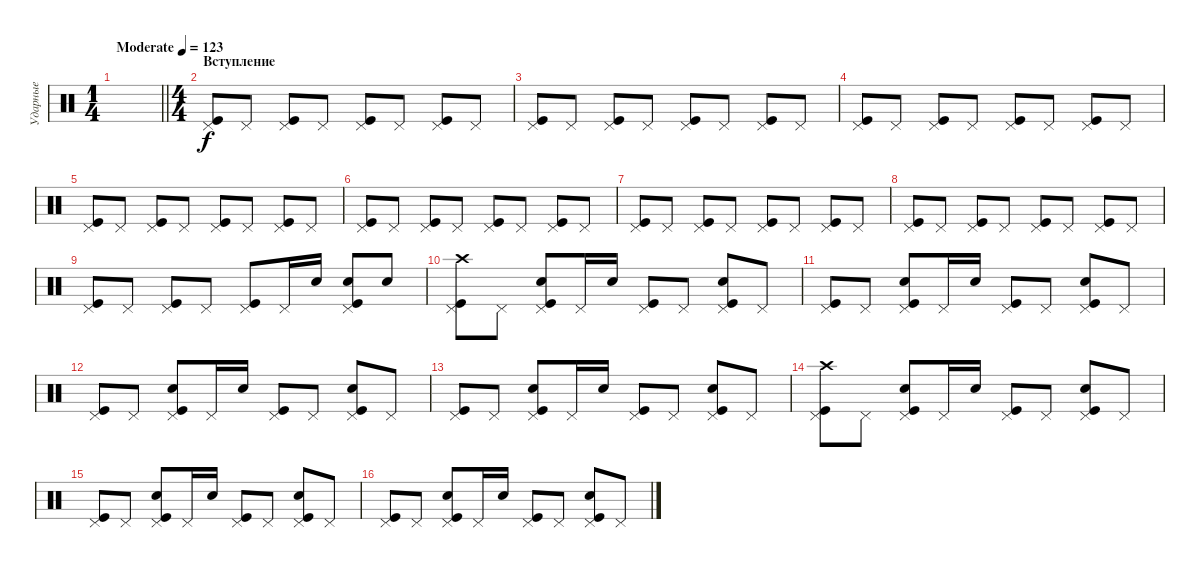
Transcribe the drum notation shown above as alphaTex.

\track ("Ударные" "Ударные") {instrument percussion}
\staff {score}
\articulation defaults
\ts (1 4)
\tempo (123 "Moderate")
\clef neutral
\barLineRight lightlight
\ks c
|
\ts (4 4)
\section ("" "Вступление")
("Kick (hit)" "Pedal Hi-Hat (hit)").8 "Pedal Hi-Hat (hit)".8 ("Kick (hit)" "Pedal Hi-Hat (hit)").8 "Pedal Hi-Hat (hit)".8 ("Kick (hit)" "Pedal Hi-Hat (hit)").8 "Pedal Hi-Hat (hit)".8 ("Kick (hit)" "Pedal Hi-Hat (hit)").8 "Pedal Hi-Hat (hit)".8 |
("Kick (hit)" "Pedal Hi-Hat (hit)").8 "Pedal Hi-Hat (hit)".8 ("Kick (hit)" "Pedal Hi-Hat (hit)").8 "Pedal Hi-Hat (hit)".8 ("Kick (hit)" "Pedal Hi-Hat (hit)").8 "Pedal Hi-Hat (hit)".8 ("Kick (hit)" "Pedal Hi-Hat (hit)").8 "Pedal Hi-Hat (hit)".8 |
("Kick (hit)" "Pedal Hi-Hat (hit)").8 "Pedal Hi-Hat (hit)".8 ("Kick (hit)" "Pedal Hi-Hat (hit)").8 "Pedal Hi-Hat (hit)".8 ("Kick (hit)" "Pedal Hi-Hat (hit)").8 "Pedal Hi-Hat (hit)".8 ("Kick (hit)" "Pedal Hi-Hat (hit)").8 "Pedal Hi-Hat (hit)".8 |
("Kick (hit)" "Pedal Hi-Hat (hit)").8 "Pedal Hi-Hat (hit)".8 ("Kick (hit)" "Pedal Hi-Hat (hit)").8 "Pedal Hi-Hat (hit)".8 ("Kick (hit)" "Pedal Hi-Hat (hit)").8 "Pedal Hi-Hat (hit)".8 ("Kick (hit)" "Pedal Hi-Hat (hit)").8 "Pedal Hi-Hat (hit)".8 |
("Kick (hit)" "Pedal Hi-Hat (hit)").8 "Pedal Hi-Hat (hit)".8 ("Kick (hit)" "Pedal Hi-Hat (hit)").8 "Pedal Hi-Hat (hit)".8 ("Kick (hit)" "Pedal Hi-Hat (hit)").8 "Pedal Hi-Hat (hit)".8 ("Kick (hit)" "Pedal Hi-Hat (hit)").8 "Pedal Hi-Hat (hit)".8 |
("Kick (hit)" "Pedal Hi-Hat (hit)").8 "Pedal Hi-Hat (hit)".8 ("Kick (hit)" "Pedal Hi-Hat (hit)").8 "Pedal Hi-Hat (hit)".8 ("Kick (hit)" "Pedal Hi-Hat (hit)").8 "Pedal Hi-Hat (hit)".8 ("Kick (hit)" "Pedal Hi-Hat (hit)").8 "Pedal Hi-Hat (hit)".8 |
("Kick (hit)" "Pedal Hi-Hat (hit)").8 "Pedal Hi-Hat (hit)".8 ("Kick (hit)" "Pedal Hi-Hat (hit)").8 "Pedal Hi-Hat (hit)".8 ("Kick (hit)" "Pedal Hi-Hat (hit)").8 "Pedal Hi-Hat (hit)".8 ("Kick (hit)" "Pedal Hi-Hat (hit)").8 "Pedal Hi-Hat (hit)".8 |
("Kick (hit)" "Pedal Hi-Hat (hit)").8 "Pedal Hi-Hat (hit)".8 ("Kick (hit)" "Pedal Hi-Hat (hit)").8 "Pedal Hi-Hat (hit)".8 ("Kick (hit)" "Pedal Hi-Hat (hit)").8 "Pedal Hi-Hat (hit)".16 "Snare (hit) 2".16 ("Kick (hit)" "Pedal Hi-Hat (hit)" "Snare (hit) 2").8 "Snare (hit) 2".8 |
("Kick (hit)" "Pedal Hi-Hat (hit)" "Crash high (hit)").8 "Pedal Hi-Hat (hit)".8 ("Kick (hit)" "Pedal Hi-Hat (hit)" "Snare (hit) 2").8 "Pedal Hi-Hat (hit)".16 "Snare (hit) 2".16 ("Kick (hit)" "Pedal Hi-Hat (hit)").8 "Pedal Hi-Hat (hit)".8 ("Kick (hit)" "Pedal Hi-Hat (hit)" "Snare (hit) 2").8 "Pedal Hi-Hat (hit)".8 |
("Kick (hit)" "Pedal Hi-Hat (hit)").8 "Pedal Hi-Hat (hit)".8 ("Kick (hit)" "Pedal Hi-Hat (hit)" "Snare (hit) 2").8 "Pedal Hi-Hat (hit)".16 "Snare (hit) 2".16 ("Kick (hit)" "Pedal Hi-Hat (hit)").8 "Pedal Hi-Hat (hit)".8 ("Kick (hit)" "Pedal Hi-Hat (hit)" "Snare (hit) 2").8 "Pedal Hi-Hat (hit)".8 |
("Kick (hit)" "Pedal Hi-Hat (hit)").8 "Pedal Hi-Hat (hit)".8 ("Kick (hit)" "Pedal Hi-Hat (hit)" "Snare (hit) 2").8 "Pedal Hi-Hat (hit)".16 "Snare (hit) 2".16 ("Kick (hit)" "Pedal Hi-Hat (hit)").8 "Pedal Hi-Hat (hit)".8 ("Kick (hit)" "Pedal Hi-Hat (hit)" "Snare (hit) 2").8 "Pedal Hi-Hat (hit)".8 |
("Kick (hit)" "Pedal Hi-Hat (hit)").8 "Pedal Hi-Hat (hit)".8 ("Kick (hit)" "Pedal Hi-Hat (hit)" "Snare (hit) 2").8 "Pedal Hi-Hat (hit)".16 "Snare (hit) 2".16 ("Kick (hit)" "Pedal Hi-Hat (hit)").8 "Pedal Hi-Hat (hit)".8 ("Kick (hit)" "Pedal Hi-Hat (hit)" "Snare (hit) 2").8 "Pedal Hi-Hat (hit)".8 |
("Kick (hit)" "Pedal Hi-Hat (hit)" "Crash high (hit)").8 "Pedal Hi-Hat (hit)".8 ("Kick (hit)" "Pedal Hi-Hat (hit)" "Snare (hit) 2").8 "Pedal Hi-Hat (hit)".16 "Snare (hit) 2".16 ("Kick (hit)" "Pedal Hi-Hat (hit)").8 "Pedal Hi-Hat (hit)".8 ("Kick (hit)" "Pedal Hi-Hat (hit)" "Snare (hit) 2").8 "Pedal Hi-Hat (hit)".8 |
("Kick (hit)" "Pedal Hi-Hat (hit)").8 "Pedal Hi-Hat (hit)".8 ("Kick (hit)" "Pedal Hi-Hat (hit)" "Snare (hit) 2").8 "Pedal Hi-Hat (hit)".16 "Snare (hit) 2".16 ("Kick (hit)" "Pedal Hi-Hat (hit)").8 "Pedal Hi-Hat (hit)".8 ("Kick (hit)" "Pedal Hi-Hat (hit)" "Snare (hit) 2").8 "Pedal Hi-Hat (hit)".8 |
("Kick (hit)" "Pedal Hi-Hat (hit)").8 "Pedal Hi-Hat (hit)".8 ("Kick (hit)" "Pedal Hi-Hat (hit)" "Snare (hit) 2").8 "Pedal Hi-Hat (hit)".16 "Snare (hit) 2".16 ("Kick (hit)" "Pedal Hi-Hat (hit)").8 "Pedal Hi-Hat (hit)".8 ("Kick (hit)" "Pedal Hi-Hat (hit)" "Snare (hit) 2").8 "Pedal Hi-Hat (hit)".8
